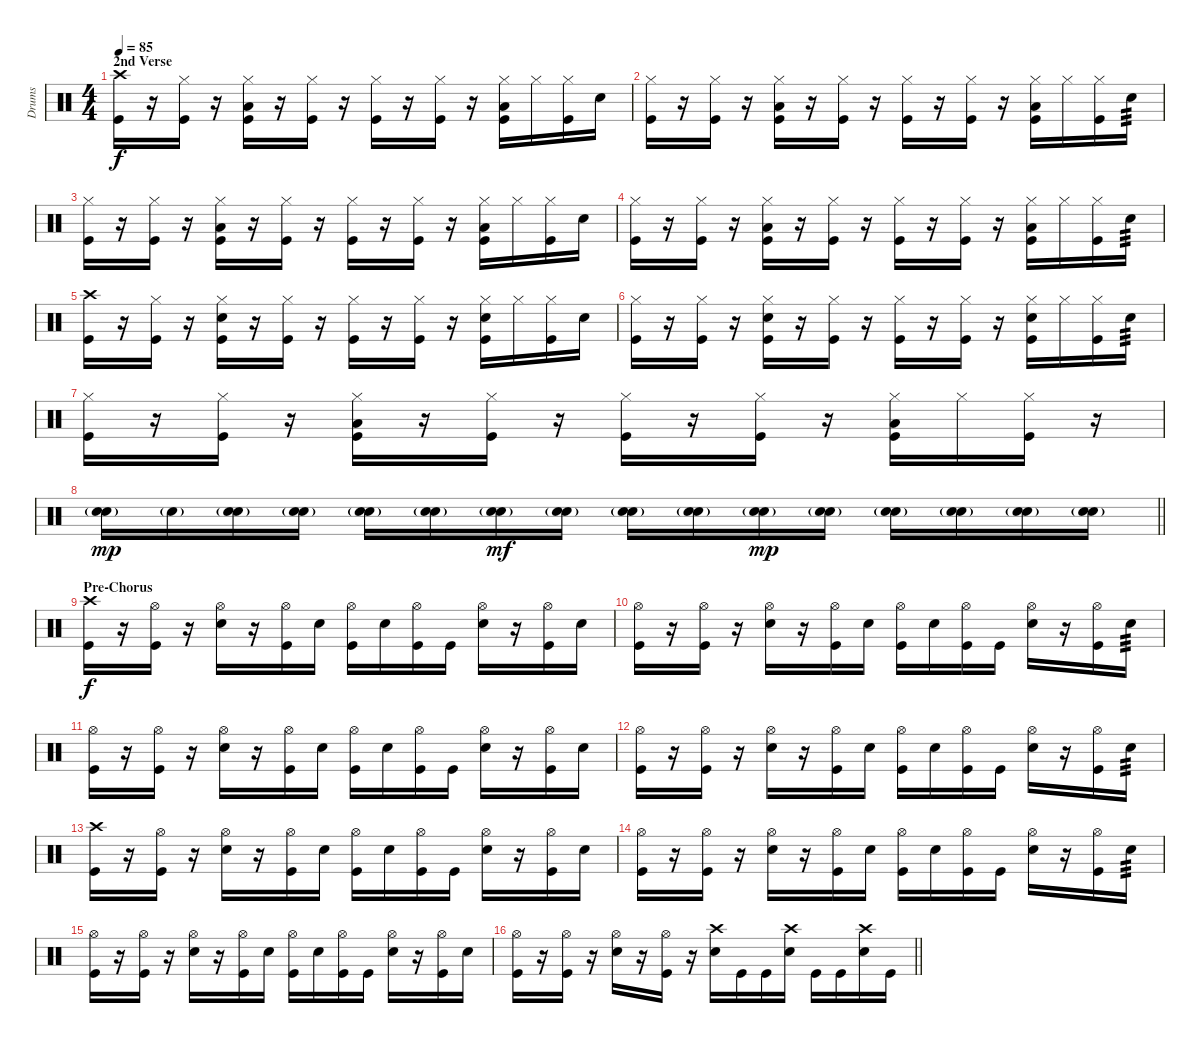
\track ("Drums" "Drums") {instrument percussion}
\staff {score}
\articulation defaults
\ts (4 4)
\section ("" "2nd Verse")
\tempo 85
\clef neutral
\ks c
("Crash high (hit)" "Kick (hit)").16{dy f} r.16 ("Hi-Hat (closed)" "Kick (hit)").16 r.16 ("Hi-Hat (closed)" "Low Tom (hit)" "Kick (hit)").16 r.16 ("Hi-Hat (closed)" "Kick (hit)").16 r.16 ("Hi-Hat (closed)" "Kick (hit)").16 r.16 ("Hi-Hat (closed)" "Kick (hit)").16 r.16 ("Hi-Hat (closed)" "Low Tom (hit)" "Kick (hit)").16 "Hi-Hat (closed)".16 ("Hi-Hat (closed)" "Kick (hit)").16 "Snare (hit) 2".16 |
("Hi-Hat (closed)" "Kick (hit)").16 r.16 ("Hi-Hat (closed)" "Kick (hit)").16 r.16 ("Hi-Hat (closed)" "Low Tom (hit)" "Kick (hit)").16 r.16 ("Hi-Hat (closed)" "Kick (hit)").16 r.16 ("Hi-Hat (closed)" "Kick (hit)").16 r.16 ("Hi-Hat (closed)" "Kick (hit)").16 r.16 ("Hi-Hat (closed)" "Low Tom (hit)" "Kick (hit)").16 "Hi-Hat (closed)".16 ("Hi-Hat (closed)" "Kick (hit)").16 "Snare (hit) 2".16{tp 3} |
("Hi-Hat (closed)" "Kick (hit)").16 r.16 ("Hi-Hat (closed)" "Kick (hit)").16 r.16 ("Hi-Hat (closed)" "Low Tom (hit)" "Kick (hit)").16 r.16 ("Hi-Hat (closed)" "Kick (hit)").16 r.16 ("Hi-Hat (closed)" "Kick (hit)").16 r.16 ("Hi-Hat (closed)" "Kick (hit)").16 r.16 ("Hi-Hat (closed)" "Low Tom (hit)" "Kick (hit)").16 "Hi-Hat (closed)".16 ("Hi-Hat (closed)" "Kick (hit)").16 "Snare (hit) 2".16 |
("Hi-Hat (closed)" "Kick (hit)").16 r.16 ("Hi-Hat (closed)" "Kick (hit)").16 r.16 ("Hi-Hat (closed)" "Low Tom (hit)" "Kick (hit)").16 r.16 ("Hi-Hat (closed)" "Kick (hit)").16 r.16 ("Hi-Hat (closed)" "Kick (hit)").16 r.16 ("Hi-Hat (closed)" "Kick (hit)").16 r.16 ("Hi-Hat (closed)" "Low Tom (hit)" "Kick (hit)").16 "Hi-Hat (closed)".16 ("Hi-Hat (closed)" "Kick (hit)").16 "Snare (hit) 2".16{tp 3} |
("Crash high (hit)" "Kick (hit)").16 r.16 ("Hi-Hat (closed)" "Kick (hit)").16 r.16 ("Hi-Hat (closed)" "Snare (hit) 2" "Kick (hit)").16 r.16 ("Hi-Hat (closed)" "Kick (hit)").16 r.16 ("Hi-Hat (closed)" "Kick (hit)").16 r.16 ("Hi-Hat (closed)" "Kick (hit)").16 r.16 ("Hi-Hat (closed)" "Snare (hit) 2" "Kick (hit)").16 "Hi-Hat (closed)".16 ("Hi-Hat (closed)" "Kick (hit)").16 "Snare (hit) 2".16 |
("Hi-Hat (closed)" "Kick (hit)").16 r.16 ("Hi-Hat (closed)" "Kick (hit)").16 r.16 ("Hi-Hat (closed)" "Snare (hit) 2" "Kick (hit)").16 r.16 ("Hi-Hat (closed)" "Kick (hit)").16 r.16 ("Hi-Hat (closed)" "Kick (hit)").16 r.16 ("Hi-Hat (closed)" "Kick (hit)").16 r.16 ("Hi-Hat (closed)" "Snare (hit) 2" "Kick (hit)").16 "Hi-Hat (closed)".16 ("Hi-Hat (closed)" "Kick (hit)").16 "Snare (hit) 2".16{tp 3} |
("Hi-Hat (closed)" "Kick (hit)").16 r.16 ("Hi-Hat (closed)" "Kick (hit)").16 r.16 ("Hi-Hat (closed)" "Low Tom (hit)" "Kick (hit)").16 r.16 ("Hi-Hat (closed)" "Kick (hit)").16 r.16 ("Hi-Hat (closed)" "Kick (hit)").16 r.16 ("Hi-Hat (closed)" "Kick (hit)").16 r.16 ("Hi-Hat (closed)" "Low Tom (hit)" "Kick (hit)").16 "Hi-Hat (closed)".16 ("Hi-Hat (closed)" "Kick (hit)").16 r.16 |
\barLineRight lightlight
("Snare (hit) 2"{g} "Snare (hit) 2").16{dy mp} "Snare (hit) 2"{g}.16 ("Snare (hit) 2"{g} "Snare (hit) 2").16 ("Snare (hit) 2"{g} "Snare (hit) 2").16 ("Snare (hit) 2"{g} "Snare (hit) 2").16 ("Snare (hit) 2"{g} "Snare (hit) 2").16 ("Snare (hit) 2"{g} "Snare (hit) 2").16{dy mf} ("Snare (hit) 2"{g} "Snare (hit) 2").16 ("Snare (hit) 2"{g} "Snare (hit) 2").16 ("Snare (hit) 2"{g} "Snare (hit) 2").16 ("Snare (hit) 2"{g} "Snare (hit) 2").16{dy mp} ("Snare (hit) 2"{g} "Snare (hit) 2").16 ("Snare (hit) 2"{g} "Snare (hit) 2").16 ("Snare (hit) 2"{g} "Snare (hit) 2").16 ("Snare (hit) 2"{g} "Snare (hit) 2").16 ("Snare (hit) 2"{g} "Snare (hit) 2").16 |
\section ("" "Pre-Chorus")
("Crash high (hit)" "Kick (hit)").16{dy f} r.16 ("Hi-Hat (open)" "Kick (hit)").16 r.16 ("Hi-Hat (open)" "Snare (hit) 2").16 r.16 ("Hi-Hat (open)" "Kick (hit)").16 "Snare (hit) 2".16 ("Hi-Hat (open)" "Kick (hit)").16 "Snare (hit) 2".16 ("Hi-Hat (open)" "Kick (hit)").16 "Kick (hit)".16 ("Hi-Hat (open)" "Snare (hit) 2").16 r.16 ("Hi-Hat (open)" "Kick (hit)").16 "Snare (hit) 2".16 |
("Hi-Hat (open)" "Kick (hit)").16 r.16 ("Hi-Hat (open)" "Kick (hit)").16 r.16 ("Hi-Hat (open)" "Snare (hit) 2").16 r.16 ("Hi-Hat (open)" "Kick (hit)").16 "Snare (hit) 2".16 ("Hi-Hat (open)" "Kick (hit)").16 "Snare (hit) 2".16 ("Hi-Hat (open)" "Kick (hit)").16 "Kick (hit)".16 ("Hi-Hat (open)" "Snare (hit) 2").16 r.16 ("Hi-Hat (open)" "Kick (hit)").16 "Snare (hit) 2".16{tp 3} |
("Hi-Hat (open)" "Kick (hit)").16 r.16 ("Hi-Hat (open)" "Kick (hit)").16 r.16 ("Hi-Hat (open)" "Snare (hit) 2").16 r.16 ("Hi-Hat (open)" "Kick (hit)").16 "Snare (hit) 2".16 ("Hi-Hat (open)" "Kick (hit)").16 "Snare (hit) 2".16 ("Hi-Hat (open)" "Kick (hit)").16 "Kick (hit)".16 ("Hi-Hat (open)" "Snare (hit) 2").16 r.16 ("Hi-Hat (open)" "Kick (hit)").16 "Snare (hit) 2".16 |
("Hi-Hat (open)" "Kick (hit)").16 r.16 ("Hi-Hat (open)" "Kick (hit)").16 r.16 ("Hi-Hat (open)" "Snare (hit) 2").16 r.16 ("Hi-Hat (open)" "Kick (hit)").16 "Snare (hit) 2".16 ("Hi-Hat (open)" "Kick (hit)").16 "Snare (hit) 2".16 ("Hi-Hat (open)" "Kick (hit)").16 "Kick (hit)".16 ("Hi-Hat (open)" "Snare (hit) 2").16 r.16 ("Hi-Hat (open)" "Kick (hit)").16 "Snare (hit) 2".16{tp 3} |
("Crash high (hit)" "Kick (hit)").16 r.16 ("Hi-Hat (open)" "Kick (hit)").16 r.16 ("Hi-Hat (open)" "Snare (hit) 2").16 r.16 ("Hi-Hat (open)" "Kick (hit)").16 "Snare (hit) 2".16 ("Hi-Hat (open)" "Kick (hit)").16 "Snare (hit) 2".16 ("Hi-Hat (open)" "Kick (hit)").16 "Kick (hit)".16 ("Hi-Hat (open)" "Snare (hit) 2").16 r.16 ("Hi-Hat (open)" "Kick (hit)").16 "Snare (hit) 2".16 |
("Hi-Hat (open)" "Kick (hit)").16 r.16 ("Hi-Hat (open)" "Kick (hit)").16 r.16 ("Hi-Hat (open)" "Snare (hit) 2").16 r.16 ("Hi-Hat (open)" "Kick (hit)").16 "Snare (hit) 2".16 ("Hi-Hat (open)" "Kick (hit)").16 "Snare (hit) 2".16 ("Hi-Hat (open)" "Kick (hit)").16 "Kick (hit)".16 ("Hi-Hat (open)" "Snare (hit) 2").16 r.16 ("Hi-Hat (open)" "Kick (hit)").16 "Snare (hit) 2".16{tp 3} |
("Hi-Hat (open)" "Kick (hit)").16 r.16 ("Hi-Hat (open)" "Kick (hit)").16 r.16 ("Hi-Hat (open)" "Snare (hit) 2").16 r.16 ("Hi-Hat (open)" "Kick (hit)").16 "Snare (hit) 2".16 ("Hi-Hat (open)" "Kick (hit)").16 "Snare (hit) 2".16 ("Hi-Hat (open)" "Kick (hit)").16 "Kick (hit)".16 ("Hi-Hat (open)" "Snare (hit) 2").16 r.16 ("Hi-Hat (open)" "Kick (hit)").16 "Snare (hit) 2".16 |
\barLineRight lightlight
("Hi-Hat (open)" "Kick (hit)").16 r.16 ("Hi-Hat (open)" "Kick (hit)").16 r.16 ("Hi-Hat (open)" "Snare (hit) 2").16 r.16 ("Hi-Hat (open)" "Kick (hit)").16 r.16 ("Crash high (hit)" "Snare (hit) 2").16 "Kick (hit)".16 "Kick (hit)".16 ("Crash high (hit)" "Snare (hit) 2").16 "Kick (hit)".16 "Kick (hit)".16 ("Crash high (hit)" "Snare (hit) 2").16 "Kick (hit)".16
